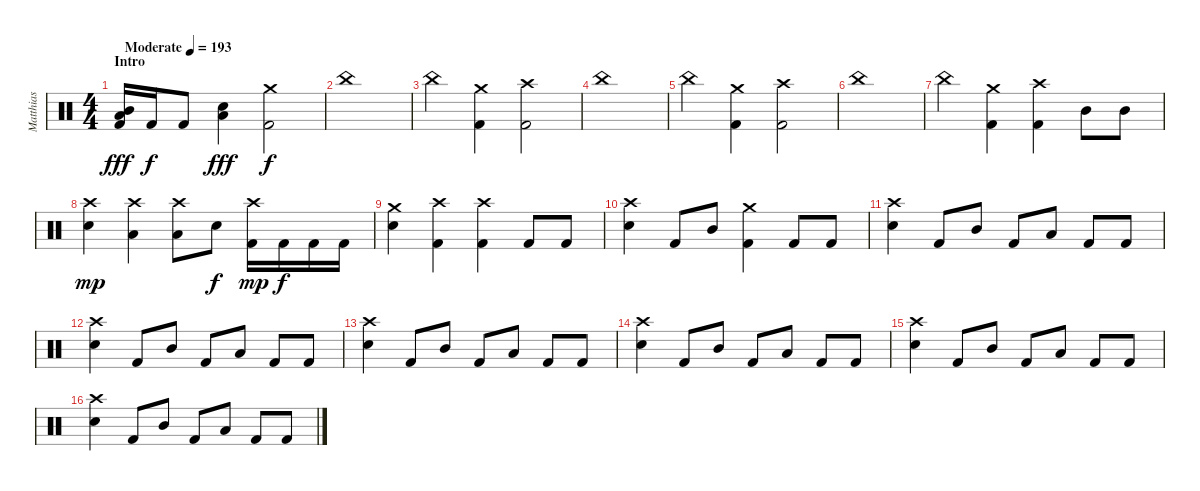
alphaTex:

\track ("Matthias" "Matthias") {instrument percussion}
\staff {score}
\articulation defaults
\ts (4 4)
\section ("" "Intro")
\tempo (193 "Moderate")
\clef neutral
\ks c
("Mid Tom (hit)" "Low Tom (hit)" "Kick (hit) 2").16{dy fff} "Kick (hit) 2".16{dy f} "Kick (hit) 2".8 ("Low Tom (hit)" "Electric Snare (hit)").4{dy fff} ("Crash medium (hit)" "Kick (hit) 2").2{dy f} |
"China (hit)".1 |
"China (hit)".4 ("Crash medium (hit)" "Kick (hit) 2").4 ("Crash high (hit)" "Kick (hit) 2").2 |
"China (hit)".1 |
"China (hit)".4 ("Crash medium (hit)" "Kick (hit) 2").4 ("Crash high (hit)" "Kick (hit) 2").2 |
"China (hit)".1 |
"China (hit)".4 ("Crash medium (hit)" "Kick (hit) 2").4 ("Crash high (hit)" "Kick (hit) 2").4 "Mid Tom (hit)".8 "Mid Tom (hit)".8 |
("Crash high (hit)" "Electric Snare (hit)").4{dy mp} ("Crash high (hit)" "Low Tom (hit)").4 ("Crash high (hit)" "Low Tom (hit)").8 "Electric Snare (hit)".8{dy f} ("Crash high (hit)" "Kick (hit) 2").16{dy mp} "Kick (hit) 2".16{dy f} "Kick (hit) 2".16 "Kick (hit) 2".16 |
("Crash medium (hit)" "Electric Snare (hit)").4 ("Crash high (hit)" "Kick (hit) 2").4 ("Crash high (hit)" "Kick (hit) 2").4 "Kick (hit) 2".8 "Kick (hit) 2".8 |
("Crash high (hit)" "Electric Snare (hit)").4 "Kick (hit) 2".8 "Mid Tom (hit)".8 ("Crash medium (hit)" "Kick (hit) 2").4 "Kick (hit) 2".8 "Kick (hit) 2".8 |
("Crash high (hit)" "Electric Snare (hit)").4 "Kick (hit) 2".8 "Mid Tom (hit)".8 "Kick (hit) 2".8 "Low Tom (hit)".8 "Kick (hit) 2".8 "Kick (hit) 2".8 |
("Crash high (hit)" "Electric Snare (hit)").4 "Kick (hit) 2".8 "Mid Tom (hit)".8 "Kick (hit) 2".8 "Low Tom (hit)".8 "Kick (hit) 2".8 "Kick (hit) 2".8 |
("Crash high (hit)" "Electric Snare (hit)").4 "Kick (hit) 2".8 "Mid Tom (hit)".8 "Kick (hit) 2".8 "Low Tom (hit)".8 "Kick (hit) 2".8 "Kick (hit) 2".8 |
("Crash high (hit)" "Electric Snare (hit)").4 "Kick (hit) 2".8 "Mid Tom (hit)".8 "Kick (hit) 2".8 "Low Tom (hit)".8 "Kick (hit) 2".8 "Kick (hit) 2".8 |
("Crash high (hit)" "Electric Snare (hit)").4 "Kick (hit) 2".8 "Mid Tom (hit)".8 "Kick (hit) 2".8 "Low Tom (hit)".8 "Kick (hit) 2".8 "Kick (hit) 2".8 |
("Crash high (hit)" "Electric Snare (hit)").4 "Kick (hit) 2".8 "Mid Tom (hit)".8 "Kick (hit) 2".8 "Low Tom (hit)".8 "Kick (hit) 2".8 "Kick (hit) 2".8
